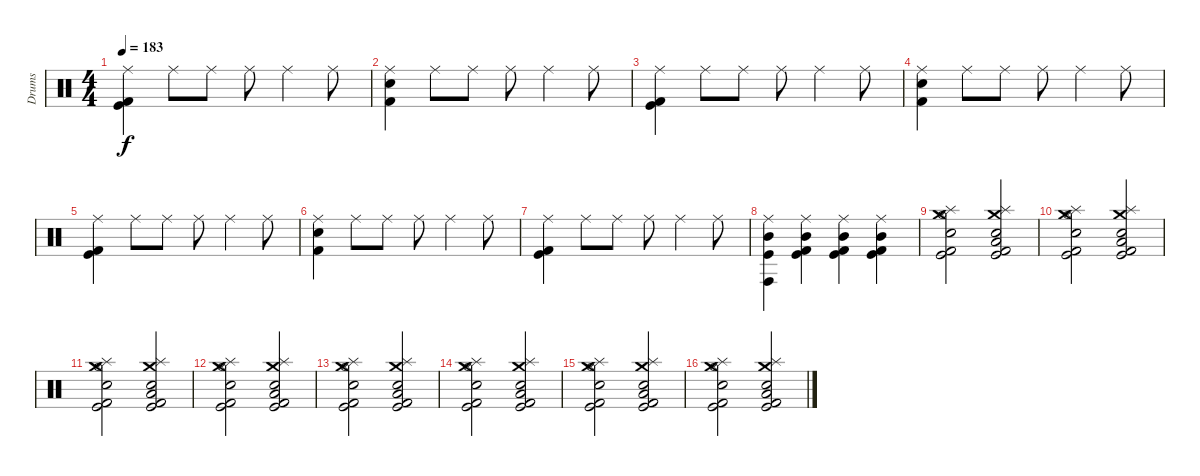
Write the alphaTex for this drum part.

\track ("Drums" "Drums") {instrument percussion}
\staff {score}
\articulation defaults
\ts (4 4)
\tempo 183
\clef neutral
\ks c
("Ride (middle)" "Kick (hit)" "Kick (hit) 2").4{dy f} "Ride (middle)".8 "Ride (middle)".8 "Ride (middle)".8 "Ride (middle)".4 "Ride (middle)".8 |
("Ride (middle)" "Electric Snare (hit)" "Kick (hit) 2").4 "Ride (middle)".8 "Ride (middle)".8 "Ride (middle)".8 "Ride (middle)".4 "Ride (middle)".8 |
("Ride (middle)" "Kick (hit)" "Kick (hit) 2").4 "Ride (middle)".8 "Ride (middle)".8 "Ride (middle)".8 "Ride (middle)".4 "Ride (middle)".8 |
("Ride (middle)" "Electric Snare (hit)" "Kick (hit) 2").4 "Ride (middle)".8 "Ride (middle)".8 "Ride (middle)".8 "Ride (middle)".4 "Ride (middle)".8 |
("Ride (middle)" "Kick (hit)" "Kick (hit) 2").4 "Ride (middle)".8 "Ride (middle)".8 "Ride (middle)".8 "Ride (middle)".4 "Ride (middle)".8 |
("Ride (middle)" "Electric Snare (hit)" "Kick (hit) 2").4 "Ride (middle)".8 "Ride (middle)".8 "Ride (middle)".8 "Ride (middle)".4 "Ride (middle)".8 |
("Ride (middle)" "Kick (hit)" "Kick (hit) 2").4 "Ride (middle)".8 "Ride (middle)".8 "Ride (middle)".8 "Ride (middle)".4 "Ride (middle)".8 |
("Ride (middle)" "Kick (hit)" "Conga high (hit)" "Mid Tom (hit)").4 ("Ride (middle)" "Kick (hit)" "Kick (hit) 2" "Mid Tom (hit)").4 ("Ride (middle)" "Kick (hit)" "Kick (hit) 2" "Mid Tom (hit)").4 ("Ride (middle)" "Kick (hit)" "Kick (hit) 2" "Mid Tom (hit)").4 |
("Hi-Hat (open)" "Crash medium (hit)" "Splash (hit)" "Kick (hit)" "Kick (hit) 2" "Electric Snare (hit)").2 ("Splash (hit)" "Crash medium (hit)" "Kick (hit) 2" "Kick (hit)" "Low Tom (hit)" "Electric Snare (hit)").2 |
("Hi-Hat (open)" "Crash medium (hit)" "Splash (hit)" "Kick (hit)" "Kick (hit) 2" "Electric Snare (hit)").2 ("Splash (hit)" "Crash medium (hit)" "Kick (hit) 2" "Kick (hit)" "Low Tom (hit)" "Electric Snare (hit)").2 |
("Hi-Hat (open)" "Crash medium (hit)" "Splash (hit)" "Kick (hit)" "Kick (hit) 2" "Electric Snare (hit)").2 ("Splash (hit)" "Crash medium (hit)" "Kick (hit) 2" "Kick (hit)" "Low Tom (hit)" "Electric Snare (hit)").2 |
("Hi-Hat (open)" "Crash medium (hit)" "Splash (hit)" "Kick (hit)" "Kick (hit) 2" "Electric Snare (hit)").2 ("Splash (hit)" "Crash medium (hit)" "Kick (hit) 2" "Kick (hit)" "Low Tom (hit)" "Electric Snare (hit)").2 |
("Hi-Hat (open)" "Crash medium (hit)" "Splash (hit)" "Kick (hit)" "Kick (hit) 2" "Electric Snare (hit)").2 ("Splash (hit)" "Crash medium (hit)" "Kick (hit) 2" "Kick (hit)" "Low Tom (hit)" "Electric Snare (hit)").2 |
("Hi-Hat (open)" "Crash medium (hit)" "Splash (hit)" "Kick (hit)" "Kick (hit) 2" "Electric Snare (hit)").2 ("Splash (hit)" "Crash medium (hit)" "Kick (hit) 2" "Kick (hit)" "Low Tom (hit)" "Electric Snare (hit)").2 |
("Hi-Hat (open)" "Crash medium (hit)" "Splash (hit)" "Kick (hit)" "Kick (hit) 2" "Electric Snare (hit)").2 ("Splash (hit)" "Crash medium (hit)" "Kick (hit) 2" "Kick (hit)" "Low Tom (hit)" "Electric Snare (hit)").2 |
("Hi-Hat (open)" "Crash medium (hit)" "Splash (hit)" "Kick (hit)" "Kick (hit) 2" "Electric Snare (hit)").2 ("Splash (hit)" "Crash medium (hit)" "Kick (hit) 2" "Kick (hit)" "Low Tom (hit)" "Electric Snare (hit)").2
